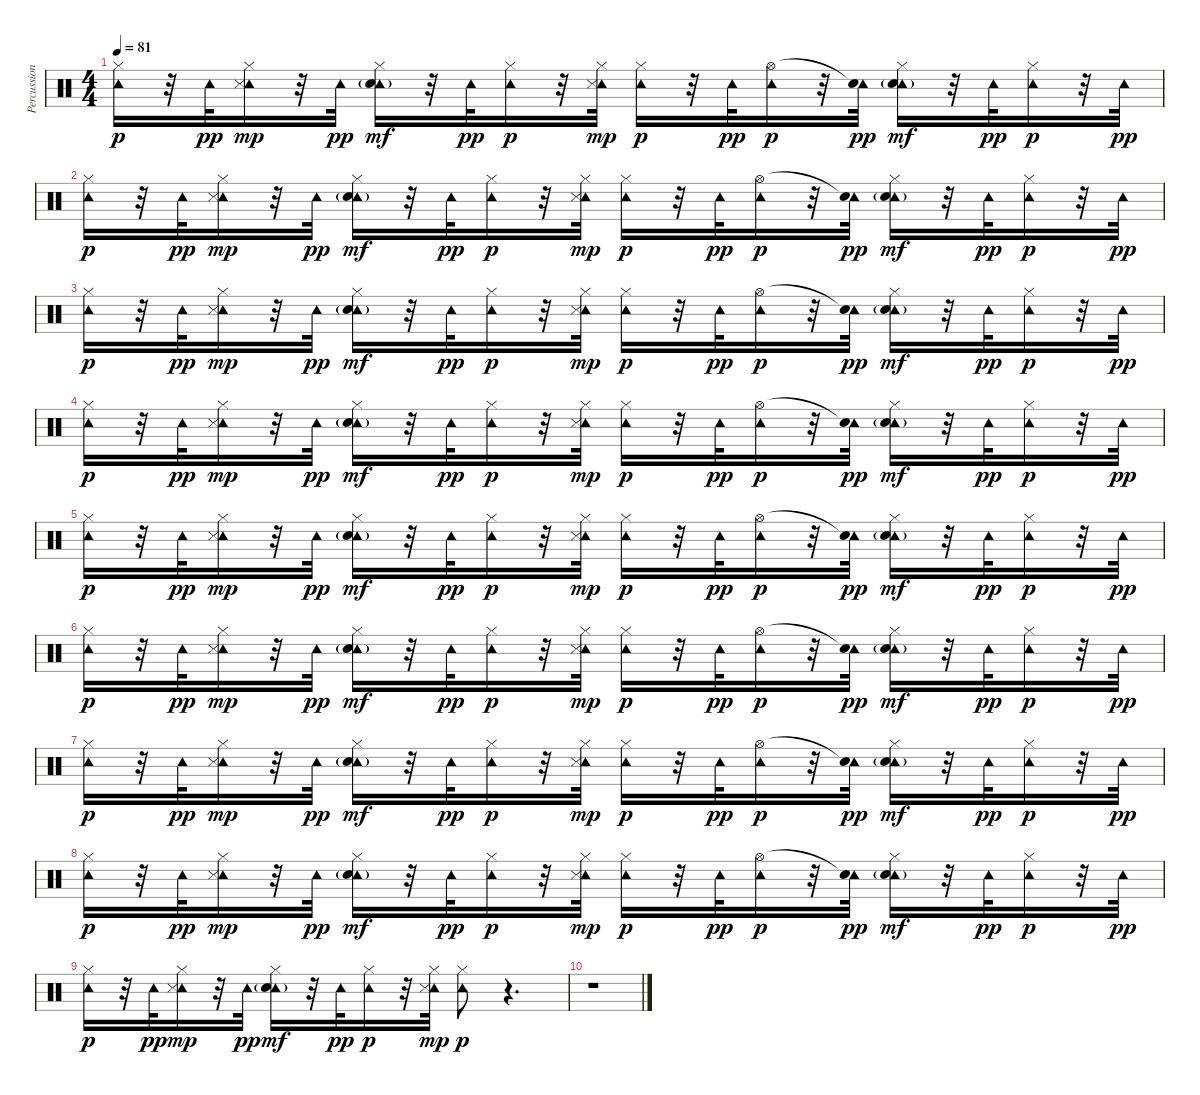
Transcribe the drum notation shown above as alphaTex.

\track ("Percussion" "Percussion") {instrument percussion}
\staff {score}
\articulation defaults
\ts (4 4)
\tempo 81
\clef neutral
\ks c
("Tambourine (hit)" "Hi-Hat (closed)").16{dy p} r.32 "Tambourine (hit)".32{dy pp} ("Tambourine (hit)" "Hi-Hat (closed)" "Snare (side stick) 3").16{dy mp} r.32 "Tambourine (hit)".32{dy pp} ("Tambourine (hit)" "Hi-Hat (closed)" "Snare (hit) 2"{g}).16{dy mf} r.32 "Tambourine (hit)".32{dy pp} ("Tambourine (hit)" "Hi-Hat (closed)").16{dy p} r.32 ("Tambourine (hit)" "Hi-Hat (closed)" "Snare (side stick) 3").32{dy mp} ("Tambourine (hit)" "Hi-Hat (closed)").16{dy p} r.32 "Tambourine (hit)".32{dy pp} ("Tambourine (hit)" "Hi-Hat (open)").16{dy p} r.32 ("Tambourine (hit)" "Snare (hit)"{t}).32{dy pp} ("Tambourine (hit)" "Hi-Hat (closed)" "Snare (hit) 2"{g}).16{dy mf} r.32 "Tambourine (hit)".32{dy pp} ("Tambourine (hit)" "Hi-Hat (closed)").16{dy p} r.32 "Tambourine (hit)".32{dy pp} |
("Tambourine (hit)" "Hi-Hat (closed)").16{dy p} r.32 "Tambourine (hit)".32{dy pp} ("Tambourine (hit)" "Hi-Hat (closed)" "Snare (side stick) 3").16{dy mp} r.32 "Tambourine (hit)".32{dy pp} ("Tambourine (hit)" "Hi-Hat (closed)" "Snare (hit) 2"{g}).16{dy mf} r.32 "Tambourine (hit)".32{dy pp} ("Tambourine (hit)" "Hi-Hat (closed)").16{dy p} r.32 ("Tambourine (hit)" "Hi-Hat (closed)" "Snare (side stick) 3").32{dy mp} ("Tambourine (hit)" "Hi-Hat (closed)").16{dy p} r.32 "Tambourine (hit)".32{dy pp} ("Tambourine (hit)" "Hi-Hat (open)").16{dy p} r.32 ("Tambourine (hit)" "Snare (hit)"{t}).32{dy pp} ("Tambourine (hit)" "Hi-Hat (closed)" "Snare (hit) 2"{g}).16{dy mf} r.32 "Tambourine (hit)".32{dy pp} ("Tambourine (hit)" "Hi-Hat (closed)").16{dy p} r.32 "Tambourine (hit)".32{dy pp} |
("Tambourine (hit)" "Hi-Hat (closed)").16{dy p} r.32 "Tambourine (hit)".32{dy pp} ("Tambourine (hit)" "Hi-Hat (closed)" "Snare (side stick) 3").16{dy mp} r.32 "Tambourine (hit)".32{dy pp} ("Tambourine (hit)" "Hi-Hat (closed)" "Snare (hit) 2"{g}).16{dy mf} r.32 "Tambourine (hit)".32{dy pp} ("Tambourine (hit)" "Hi-Hat (closed)").16{dy p} r.32 ("Tambourine (hit)" "Hi-Hat (closed)" "Snare (side stick) 3").32{dy mp} ("Tambourine (hit)" "Hi-Hat (closed)").16{dy p} r.32 "Tambourine (hit)".32{dy pp} ("Tambourine (hit)" "Hi-Hat (open)").16{dy p} r.32 ("Tambourine (hit)" "Snare (hit)"{t}).32{dy pp} ("Tambourine (hit)" "Hi-Hat (closed)" "Snare (hit) 2"{g}).16{dy mf} r.32 "Tambourine (hit)".32{dy pp} ("Tambourine (hit)" "Hi-Hat (closed)").16{dy p} r.32 "Tambourine (hit)".32{dy pp} |
("Tambourine (hit)" "Hi-Hat (closed)").16{dy p} r.32 "Tambourine (hit)".32{dy pp} ("Tambourine (hit)" "Hi-Hat (closed)" "Snare (side stick) 3").16{dy mp} r.32 "Tambourine (hit)".32{dy pp} ("Tambourine (hit)" "Hi-Hat (closed)" "Snare (hit) 2"{g}).16{dy mf} r.32 "Tambourine (hit)".32{dy pp} ("Tambourine (hit)" "Hi-Hat (closed)").16{dy p} r.32 ("Tambourine (hit)" "Hi-Hat (closed)" "Snare (side stick) 3").32{dy mp} ("Tambourine (hit)" "Hi-Hat (closed)").16{dy p} r.32 "Tambourine (hit)".32{dy pp} ("Tambourine (hit)" "Hi-Hat (open)").16{dy p} r.32 ("Tambourine (hit)" "Snare (hit)"{t}).32{dy pp} ("Tambourine (hit)" "Hi-Hat (closed)" "Snare (hit) 2"{g}).16{dy mf} r.32 "Tambourine (hit)".32{dy pp} ("Tambourine (hit)" "Hi-Hat (closed)").16{dy p} r.32 "Tambourine (hit)".32{dy pp} |
("Tambourine (hit)" "Hi-Hat (closed)").16{dy p} r.32 "Tambourine (hit)".32{dy pp} ("Tambourine (hit)" "Hi-Hat (closed)" "Snare (side stick) 3").16{dy mp} r.32 "Tambourine (hit)".32{dy pp} ("Tambourine (hit)" "Hi-Hat (closed)" "Snare (hit) 2"{g}).16{dy mf} r.32 "Tambourine (hit)".32{dy pp} ("Tambourine (hit)" "Hi-Hat (closed)").16{dy p} r.32 ("Tambourine (hit)" "Hi-Hat (closed)" "Snare (side stick) 3").32{dy mp} ("Tambourine (hit)" "Hi-Hat (closed)").16{dy p} r.32 "Tambourine (hit)".32{dy pp} ("Tambourine (hit)" "Hi-Hat (open)").16{dy p} r.32 ("Tambourine (hit)" "Snare (hit)"{t}).32{dy pp} ("Tambourine (hit)" "Hi-Hat (closed)" "Snare (hit) 2"{g}).16{dy mf} r.32 "Tambourine (hit)".32{dy pp} ("Tambourine (hit)" "Hi-Hat (closed)").16{dy p} r.32 "Tambourine (hit)".32{dy pp} |
("Tambourine (hit)" "Hi-Hat (closed)").16{dy p} r.32 "Tambourine (hit)".32{dy pp} ("Tambourine (hit)" "Hi-Hat (closed)" "Snare (side stick) 3").16{dy mp} r.32 "Tambourine (hit)".32{dy pp} ("Tambourine (hit)" "Hi-Hat (closed)" "Snare (hit) 2"{g}).16{dy mf} r.32 "Tambourine (hit)".32{dy pp} ("Tambourine (hit)" "Hi-Hat (closed)").16{dy p} r.32 ("Tambourine (hit)" "Hi-Hat (closed)" "Snare (side stick) 3").32{dy mp} ("Tambourine (hit)" "Hi-Hat (closed)").16{dy p} r.32 "Tambourine (hit)".32{dy pp} ("Tambourine (hit)" "Hi-Hat (open)").16{dy p} r.32 ("Tambourine (hit)" "Snare (hit)"{t}).32{dy pp} ("Tambourine (hit)" "Hi-Hat (closed)" "Snare (hit) 2"{g}).16{dy mf} r.32 "Tambourine (hit)".32{dy pp} ("Tambourine (hit)" "Hi-Hat (closed)").16{dy p} r.32 "Tambourine (hit)".32{dy pp} |
("Tambourine (hit)" "Hi-Hat (closed)").16{dy p} r.32 "Tambourine (hit)".32{dy pp} ("Tambourine (hit)" "Hi-Hat (closed)" "Snare (side stick) 3").16{dy mp} r.32 "Tambourine (hit)".32{dy pp} ("Tambourine (hit)" "Hi-Hat (closed)" "Snare (hit) 2"{g}).16{dy mf} r.32 "Tambourine (hit)".32{dy pp} ("Tambourine (hit)" "Hi-Hat (closed)").16{dy p} r.32 ("Tambourine (hit)" "Hi-Hat (closed)" "Snare (side stick) 3").32{dy mp} ("Tambourine (hit)" "Hi-Hat (closed)").16{dy p} r.32 "Tambourine (hit)".32{dy pp} ("Tambourine (hit)" "Hi-Hat (open)").16{dy p} r.32 ("Tambourine (hit)" "Snare (hit)"{t}).32{dy pp} ("Tambourine (hit)" "Hi-Hat (closed)" "Snare (hit) 2"{g}).16{dy mf} r.32 "Tambourine (hit)".32{dy pp} ("Tambourine (hit)" "Hi-Hat (closed)").16{dy p} r.32 "Tambourine (hit)".32{dy pp} |
("Tambourine (hit)" "Hi-Hat (closed)").16{dy p} r.32 "Tambourine (hit)".32{dy pp} ("Tambourine (hit)" "Hi-Hat (closed)" "Snare (side stick) 3").16{dy mp} r.32 "Tambourine (hit)".32{dy pp} ("Tambourine (hit)" "Hi-Hat (closed)" "Snare (hit) 2"{g}).16{dy mf} r.32 "Tambourine (hit)".32{dy pp} ("Tambourine (hit)" "Hi-Hat (closed)").16{dy p} r.32 ("Tambourine (hit)" "Hi-Hat (closed)" "Snare (side stick) 3").32{dy mp} ("Tambourine (hit)" "Hi-Hat (closed)").16{dy p} r.32 "Tambourine (hit)".32{dy pp} ("Tambourine (hit)" "Hi-Hat (open)").16{dy p} r.32 ("Tambourine (hit)" "Snare (hit)"{t}).32{dy pp} ("Tambourine (hit)" "Hi-Hat (closed)" "Snare (hit) 2"{g}).16{dy mf} r.32 "Tambourine (hit)".32{dy pp} ("Tambourine (hit)" "Hi-Hat (closed)").16{dy p} r.32 "Tambourine (hit)".32{dy pp} |
("Tambourine (hit)" "Hi-Hat (closed)").16{dy p} r.32 "Tambourine (hit)".32{dy pp} ("Tambourine (hit)" "Hi-Hat (closed)" "Snare (side stick) 3").16{dy mp} r.32 "Tambourine (hit)".32{dy pp} ("Tambourine (hit)" "Hi-Hat (closed)" "Snare (hit) 2"{g}).16{dy mf} r.32 "Tambourine (hit)".32{dy pp} ("Tambourine (hit)" "Hi-Hat (closed)").16{dy p} r.32 ("Tambourine (hit)" "Hi-Hat (closed)" "Snare (side stick) 3").32{dy mp} ("Tambourine (hit)" "Hi-Hat (closed)").8{dy p} r.4{d} |
r.1
